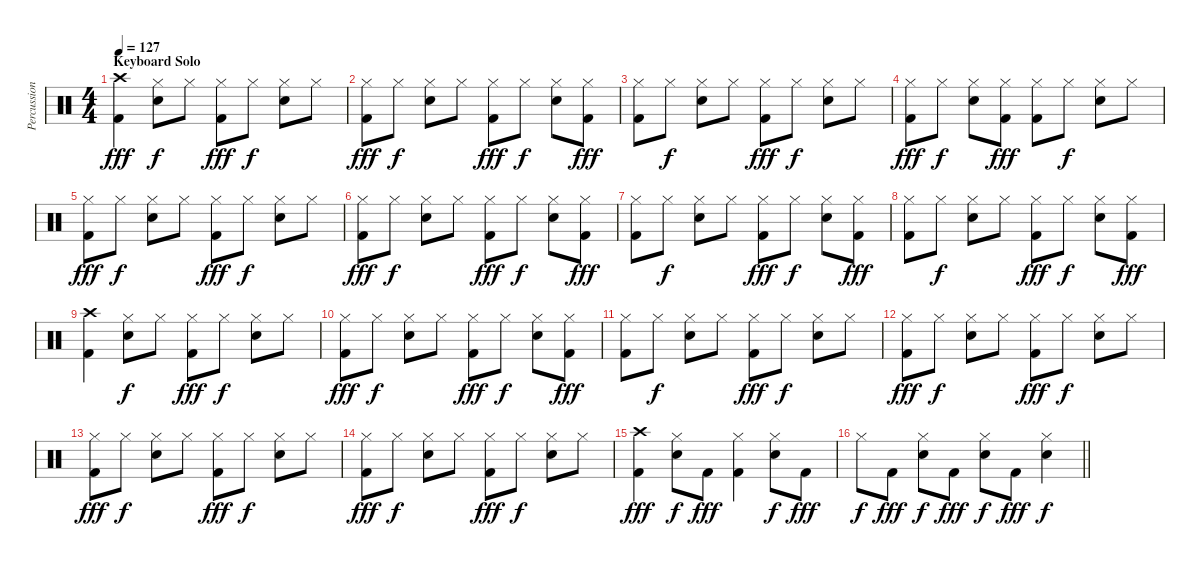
\track ("Percussion" "Percussion") {instrument percussion}
\staff {score}
\articulation defaults
\ts (4 4)
\section ("" "Keyboard Solo")
\tempo 127
\clef neutral
\ks c
("Crash high (hit)" "Kick (hit) 2").4{dy fff} ("Hi-Hat (closed)" "Electric Snare (hit)").8{dy f} "Hi-Hat (closed)".8 ("Hi-Hat (closed)" "Kick (hit) 2").8{dy fff} "Hi-Hat (closed)".8{dy f} ("Hi-Hat (closed)" "Electric Snare (hit)").8 "Hi-Hat (closed)".8 |
("Hi-Hat (closed)" "Kick (hit) 2").8{dy fff} "Hi-Hat (closed)".8{dy f} ("Hi-Hat (closed)" "Electric Snare (hit)").8 "Hi-Hat (closed)".8 ("Hi-Hat (closed)" "Kick (hit) 2").8{dy fff} "Hi-Hat (closed)".8{dy f} ("Hi-Hat (closed)" "Electric Snare (hit)").8 ("Hi-Hat (closed)" "Kick (hit) 2").8{dy fff} |
("Hi-Hat (closed)" "Kick (hit) 2").8 "Hi-Hat (closed)".8{dy f} ("Hi-Hat (closed)" "Electric Snare (hit)").8 "Hi-Hat (closed)".8 ("Hi-Hat (closed)" "Kick (hit) 2").8{dy fff} "Hi-Hat (closed)".8{dy f} ("Hi-Hat (closed)" "Electric Snare (hit)").8 "Hi-Hat (closed)".8 |
("Hi-Hat (closed)" "Kick (hit) 2").8{dy fff} "Hi-Hat (closed)".8{dy f} ("Hi-Hat (closed)" "Electric Snare (hit)").8 ("Hi-Hat (closed)" "Kick (hit) 2").8{dy fff} ("Hi-Hat (closed)" "Kick (hit) 2").8 "Hi-Hat (closed)".8{dy f} ("Hi-Hat (closed)" "Electric Snare (hit)").8 "Hi-Hat (closed)".8 |
("Hi-Hat (closed)" "Kick (hit) 2").8{dy fff} "Hi-Hat (closed)".8{dy f} ("Hi-Hat (closed)" "Electric Snare (hit)").8 "Hi-Hat (closed)".8 ("Hi-Hat (closed)" "Kick (hit) 2").8{dy fff} "Hi-Hat (closed)".8{dy f} ("Hi-Hat (closed)" "Electric Snare (hit)").8 "Hi-Hat (closed)".8 |
("Hi-Hat (closed)" "Kick (hit) 2").8{dy fff} "Hi-Hat (closed)".8{dy f} ("Hi-Hat (closed)" "Electric Snare (hit)").8 "Hi-Hat (closed)".8 ("Hi-Hat (closed)" "Kick (hit) 2").8{dy fff} "Hi-Hat (closed)".8{dy f} ("Hi-Hat (closed)" "Electric Snare (hit)").8 ("Hi-Hat (closed)" "Kick (hit) 2").8{dy fff} |
("Hi-Hat (closed)" "Kick (hit) 2").8 "Hi-Hat (closed)".8{dy f} ("Hi-Hat (closed)" "Electric Snare (hit)").8 "Hi-Hat (closed)".8 ("Hi-Hat (closed)" "Kick (hit) 2").8{dy fff} "Hi-Hat (closed)".8{dy f} ("Hi-Hat (closed)" "Electric Snare (hit)").8 ("Hi-Hat (closed)" "Kick (hit) 2").8{dy fff} |
("Hi-Hat (closed)" "Kick (hit) 2").8 "Hi-Hat (closed)".8{dy f} ("Hi-Hat (closed)" "Electric Snare (hit)").8 "Hi-Hat (closed)".8 ("Hi-Hat (closed)" "Kick (hit) 2").8{dy fff} "Hi-Hat (closed)".8{dy f} ("Hi-Hat (closed)" "Electric Snare (hit)").8 ("Hi-Hat (closed)" "Kick (hit) 2").8{dy fff} |
("Crash high (hit)" "Kick (hit) 2").4 ("Hi-Hat (closed)" "Electric Snare (hit)").8{dy f} "Hi-Hat (closed)".8 ("Hi-Hat (closed)" "Kick (hit) 2").8{dy fff} "Hi-Hat (closed)".8{dy f} ("Hi-Hat (closed)" "Electric Snare (hit)").8 "Hi-Hat (closed)".8 |
("Hi-Hat (closed)" "Kick (hit) 2").8{dy fff} "Hi-Hat (closed)".8{dy f} ("Hi-Hat (closed)" "Electric Snare (hit)").8 "Hi-Hat (closed)".8 ("Hi-Hat (closed)" "Kick (hit) 2").8{dy fff} "Hi-Hat (closed)".8{dy f} ("Hi-Hat (closed)" "Electric Snare (hit)").8 ("Hi-Hat (closed)" "Kick (hit) 2").8{dy fff} |
("Hi-Hat (closed)" "Kick (hit) 2").8 "Hi-Hat (closed)".8{dy f} ("Hi-Hat (closed)" "Electric Snare (hit)").8 "Hi-Hat (closed)".8 ("Hi-Hat (closed)" "Kick (hit) 2").8{dy fff} "Hi-Hat (closed)".8{dy f} ("Hi-Hat (closed)" "Electric Snare (hit)").8 "Hi-Hat (closed)".8 |
("Hi-Hat (closed)" "Kick (hit) 2").8{dy fff} "Hi-Hat (closed)".8{dy f} ("Hi-Hat (closed)" "Electric Snare (hit)").8 "Hi-Hat (closed)".8 ("Hi-Hat (closed)" "Kick (hit) 2").8{dy fff} "Hi-Hat (closed)".8{dy f} ("Hi-Hat (closed)" "Electric Snare (hit)").8 "Hi-Hat (closed)".8 |
("Hi-Hat (closed)" "Kick (hit) 2").8{dy fff} "Hi-Hat (closed)".8{dy f} ("Hi-Hat (closed)" "Electric Snare (hit)").8 "Hi-Hat (closed)".8 ("Hi-Hat (closed)" "Kick (hit) 2").8{dy fff} "Hi-Hat (closed)".8{dy f} ("Hi-Hat (closed)" "Electric Snare (hit)").8 "Hi-Hat (closed)".8 |
("Hi-Hat (closed)" "Kick (hit) 2").8{dy fff} "Hi-Hat (closed)".8{dy f} ("Hi-Hat (closed)" "Electric Snare (hit)").8 "Hi-Hat (closed)".8 ("Hi-Hat (closed)" "Kick (hit) 2").8{dy fff} "Hi-Hat (closed)".8{dy f} ("Hi-Hat (closed)" "Electric Snare (hit)").8 "Hi-Hat (closed)".8 |
("Crash high (hit)" "Kick (hit) 2").4{dy fff} ("Hi-Hat (closed)" "Electric Snare (hit)").8{dy f} "Kick (hit) 2".8{dy fff} ("Hi-Hat (closed)" "Kick (hit) 2").4 ("Hi-Hat (closed)" "Electric Snare (hit)").8{dy f} "Kick (hit) 2".8{dy fff} |
\barLineRight lightlight "Hi-Hat (closed)".8{dy f} "Kick (hit) 2".8{dy fff}
("Hi-Hat (closed)" "Electric Snare (hit)").8{dy f} "Kick (hit) 2".8{dy fff} ("Hi-Hat (closed)" "Electric Snare (hit)").8{dy f} "Kick (hit) 2".8{dy fff} ("Hi-Hat (closed)" "Electric Snare (hit)").4{dy f}
